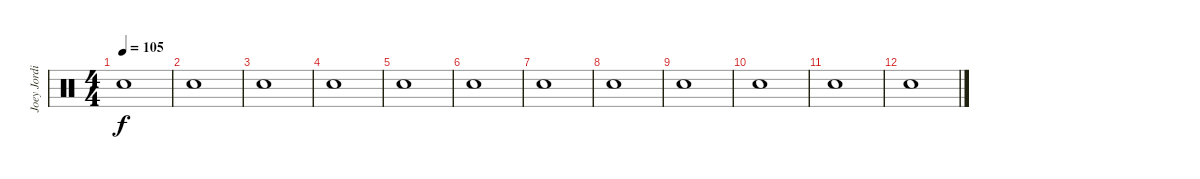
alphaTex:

\track ("Joey Jordinson (Drums)" "Joey Jordi") {instrument percussion}
\staff {score}
\articulation defaults
\ts (4 4)
\tempo 105
\clef neutral
\ks c "Snare (hit)".1{dy f}
|
"Snare (hit)".1 |
"Snare (hit)".1 |
"Snare (hit)".1 |
"Snare (hit)".1 |
"Snare (hit)".1 |
"Snare (hit)".1 |
"Snare (hit)".1 |
"Snare (hit)".1 |
"Snare (hit)".1 |
"Snare (hit)".1 |
"Snare (hit)".1
